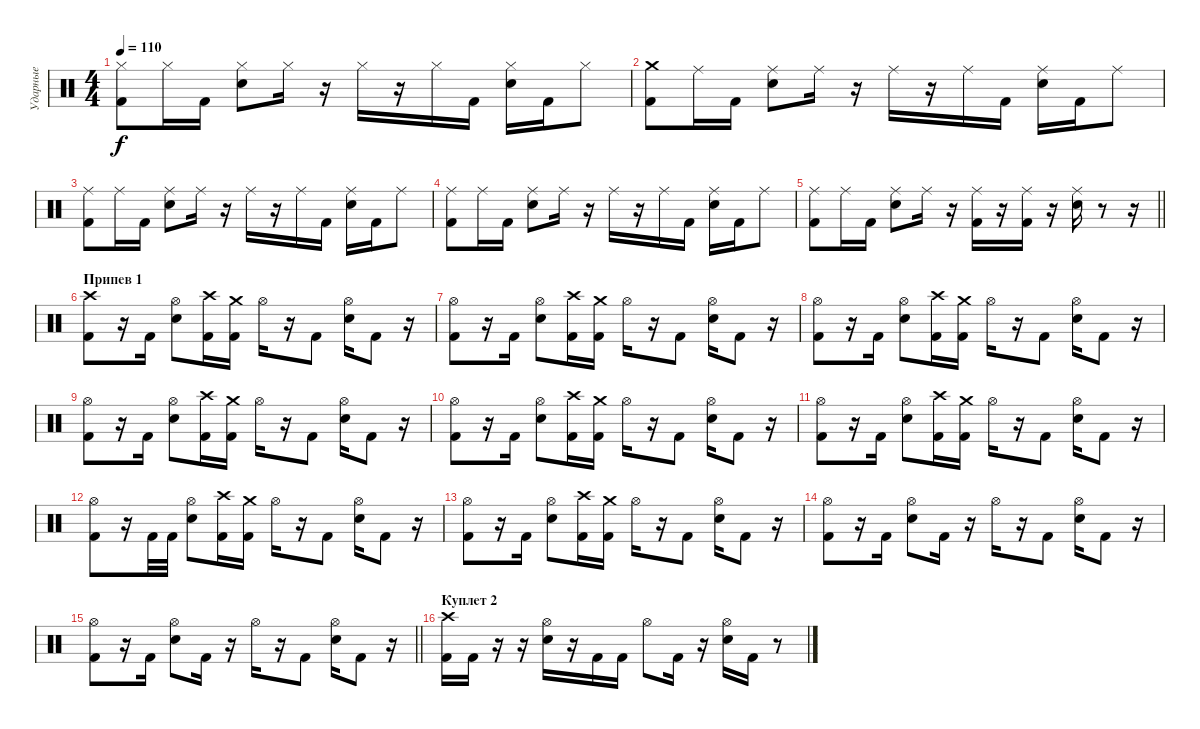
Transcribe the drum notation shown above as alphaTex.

\track ("Ударные" "Ударные") {instrument percussion}
\staff {score}
\articulation defaults
\ts (4 4)
\tempo 110
\clef neutral
\ks c
("Hi-Hat (closed)" "Kick (hit) 2").8{dy f} "Hi-Hat (closed)".16 "Kick (hit) 2".16 ("Hi-Hat (closed)" "Snare (hit) 2").8 "Hi-Hat (closed)".16 r.16 "Hi-Hat (closed)".16 r.16 "Hi-Hat (closed)".16 "Kick (hit) 2".16 ("Hi-Hat (closed)" "Snare (hit) 2").16 "Kick (hit) 2".16 "Hi-Hat (closed)".8 |
("Crash medium (hit)" "Kick (hit) 2").8 "Ride (middle)".16 "Kick (hit) 2".16 ("Ride (middle)" "Snare (hit) 2").8 "Ride (middle)".16 r.16 "Ride (middle)".16 r.16 "Ride (middle)".16 "Kick (hit) 2".16 ("Ride (middle)" "Snare (hit) 2").16 "Kick (hit) 2".16 "Ride (middle)".8 |
("Ride (middle)" "Kick (hit) 2").8 "Ride (middle)".16 "Kick (hit) 2".16 ("Ride (middle)" "Snare (hit) 2").8 "Ride (middle)".16 r.16 "Ride (middle)".16 r.16 "Ride (middle)".16 "Kick (hit) 2".16 ("Ride (middle)" "Snare (hit) 2").16 "Kick (hit) 2".16 "Ride (middle)".8 |
("Ride (middle)" "Kick (hit) 2").8 "Ride (middle)".16 "Kick (hit) 2".16 ("Ride (middle)" "Snare (hit) 2").8 "Ride (middle)".16 r.16 "Ride (middle)".16 r.16 "Ride (middle)".16 "Kick (hit) 2".16 ("Ride (middle)" "Snare (hit) 2").16 "Kick (hit) 2".16 "Ride (middle)".8 |
\barLineRight lightlight
("Ride (middle)" "Kick (hit) 2").8 "Ride (middle)".16 "Kick (hit) 2".16 ("Ride (middle)" "Snare (hit) 2").8 "Ride (middle)".16 r.16 ("Ride (middle)" "Kick (hit) 2").16 r.16 ("Ride (middle)" "Kick (hit) 2").16 r.16 ("Ride (middle)" "Snare (hit) 2").16 r.8 r.16 |
\section ("" "Припев 1")
("Crash high (hit)" "Kick (hit) 2").8 r.16 "Kick (hit) 2".16 ("Hi-Hat (open)" "Snare (hit) 2").8 ("Crash high (hit)" "Kick (hit) 2").16 ("Crash medium (hit)" "Kick (hit) 2").16 "Hi-Hat (open)".16 r.16 "Kick (hit) 2".8 ("Hi-Hat (open)" "Snare (hit) 2").16 "Kick (hit) 2".8 r.16 |
("Hi-Hat (open)" "Kick (hit) 2").8 r.16 "Kick (hit) 2".16 ("Hi-Hat (open)" "Snare (hit) 2").8 ("Crash high (hit)" "Kick (hit) 2").16 ("Crash medium (hit)" "Kick (hit) 2").16 "Hi-Hat (open)".16 r.16 "Kick (hit) 2".8 ("Hi-Hat (open)" "Snare (hit) 2").16 "Kick (hit) 2".8 r.16 |
("Hi-Hat (open)" "Kick (hit) 2").8 r.16 "Kick (hit) 2".16 ("Hi-Hat (open)" "Snare (hit) 2").8 ("Crash high (hit)" "Kick (hit) 2").16 ("Crash medium (hit)" "Kick (hit) 2").16 "Hi-Hat (open)".16 r.16 "Kick (hit) 2".8 ("Hi-Hat (open)" "Snare (hit) 2").16 "Kick (hit) 2".8 r.16 |
("Hi-Hat (open)" "Kick (hit) 2").8 r.16 "Kick (hit) 2".16 ("Hi-Hat (open)" "Snare (hit) 2").8 ("Crash high (hit)" "Kick (hit) 2").16 ("Crash medium (hit)" "Kick (hit) 2").16 "Hi-Hat (open)".16 r.16 "Kick (hit) 2".8 ("Hi-Hat (open)" "Snare (hit) 2").16 "Kick (hit) 2".8 r.16 |
("Hi-Hat (open)" "Kick (hit) 2").8 r.16 "Kick (hit) 2".16 ("Hi-Hat (open)" "Snare (hit) 2").8 ("Crash high (hit)" "Kick (hit) 2").16 ("Crash medium (hit)" "Kick (hit) 2").16 "Hi-Hat (open)".16 r.16 "Kick (hit) 2".8 ("Hi-Hat (open)" "Snare (hit) 2").16 "Kick (hit) 2".8 r.16 |
("Hi-Hat (open)" "Kick (hit) 2").8 r.16 "Kick (hit) 2".16 ("Hi-Hat (open)" "Snare (hit) 2").8 ("Crash high (hit)" "Kick (hit) 2").16 ("Crash medium (hit)" "Kick (hit) 2").16 "Hi-Hat (open)".16 r.16 "Kick (hit) 2".8 ("Hi-Hat (open)" "Snare (hit) 2").16 "Kick (hit) 2".8 r.16 |
("Hi-Hat (open)" "Kick (hit) 2").8 r.16 "Kick (hit) 2".32 "Kick (hit) 2".32 ("Hi-Hat (open)" "Snare (hit) 2").8 ("Crash high (hit)" "Kick (hit) 2").16 ("Crash medium (hit)" "Kick (hit) 2").16 "Hi-Hat (open)".16 r.16 "Kick (hit) 2".8 ("Hi-Hat (open)" "Snare (hit) 2").16 "Kick (hit) 2".8 r.16 |
("Hi-Hat (open)" "Kick (hit) 2").8 r.16 "Kick (hit) 2".16 ("Hi-Hat (open)" "Snare (hit) 2").8 ("Crash high (hit)" "Kick (hit) 2").16 ("Crash medium (hit)" "Kick (hit) 2").16 "Hi-Hat (open)".16 r.16 "Kick (hit) 2".8 ("Hi-Hat (open)" "Snare (hit) 2").16 "Kick (hit) 2".8 r.16 |
("Hi-Hat (open)" "Kick (hit) 2").8 r.16 "Kick (hit) 2".16 ("Hi-Hat (open)" "Snare (hit) 2").8 "Kick (hit) 2".16 r.16 "Hi-Hat (open)".16 r.16 "Kick (hit) 2".8 ("Hi-Hat (open)" "Snare (hit) 2").16 "Kick (hit) 2".8 r.16 |
\barLineRight lightlight
("Hi-Hat (open)" "Kick (hit) 2").8 r.16 "Kick (hit) 2".16 ("Hi-Hat (open)" "Snare (hit) 2").8 "Kick (hit) 2".16 r.16 "Hi-Hat (open)".16 r.16 "Kick (hit) 2".8 ("Hi-Hat (open)" "Snare (hit) 2").16 "Kick (hit) 2".8 r.16 |
\section ("" "Куплет 2")
("Crash high (hit)" "Kick (hit) 2").16 "Kick (hit) 2".16 r.16 r.16 ("Hi-Hat (open)" "Snare (hit) 2").16 r.16 "Kick (hit) 2".16 "Kick (hit) 2".16 "Hi-Hat (open)".8 "Kick (hit) 2".16 r.16 ("Hi-Hat (open)" "Snare (hit) 2").16 "Kick (hit) 2".16 r.8
